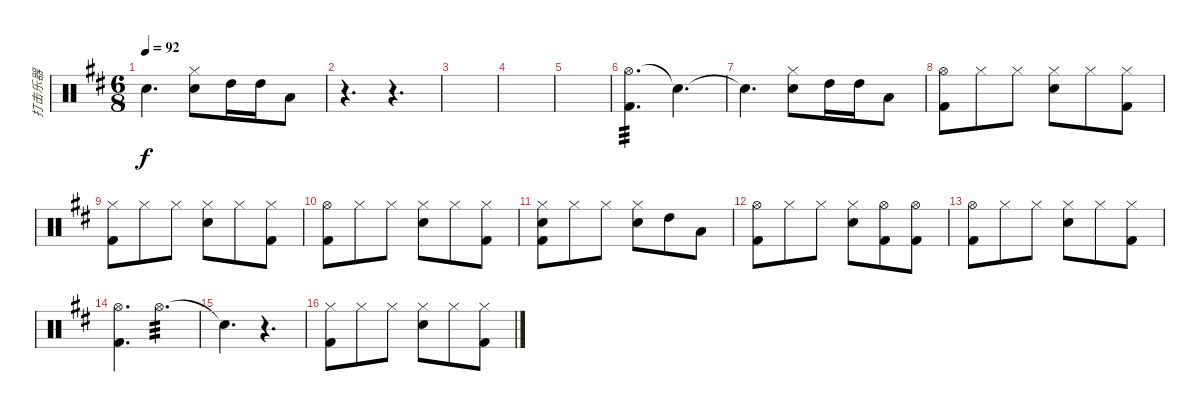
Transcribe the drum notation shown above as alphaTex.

\track ("打击乐器" "打击乐器") {instrument percussion}
\staff {score}
\articulation defaults
\ts (6 8)
\tempo 92
\clef neutral
\ks d "Snare (hit)"{t}.4{d dy f}
("Hi-Hat (closed)" "Snare (hit) 2").8 "High Tom (hit)".16 "High Tom (hit)".16 "Low Tom (hit)".8 |
r.4{d} r.4{d} |
|
|
|
("Hi-Hat (open)" "Kick (hit) 2").4{d tp 3} "Snare (hit)"{t}.4{d} |
"Snare (hit)"{t}.4{d} ("Hi-Hat (closed)" "Snare (hit) 2").8 "High Tom (hit)".16 "High Tom (hit)".16 "Low Tom (hit)".8 |
("Hi-Hat (open)" "Kick (hit) 2").8 "Hi-Hat (closed)".8 "Hi-Hat (closed)".8 ("Hi-Hat (closed)" "Snare (hit) 2").8 "Hi-Hat (closed)".8 ("Hi-Hat (closed)" "Kick (hit) 2").8 |
("Hi-Hat (closed)" "Kick (hit) 2").8 "Hi-Hat (closed)".8 "Hi-Hat (closed)".8 ("Hi-Hat (closed)" "Snare (hit) 2").8 "Hi-Hat (closed)".8 ("Hi-Hat (closed)" "Kick (hit) 2").8 |
("Hi-Hat (open)" "Kick (hit) 2").8 "Hi-Hat (closed)".8 "Hi-Hat (closed)".8 ("Hi-Hat (closed)" "Snare (hit) 2").8 "Hi-Hat (closed)".8 ("Hi-Hat (closed)" "Kick (hit) 2").8 |
("Hi-Hat (closed)" "Snare (hit) 2" "Kick (hit) 2").8 "Hi-Hat (closed)".8 "Hi-Hat (closed)".8 ("Hi-Hat (closed)" "Snare (hit) 2").8 "High Tom (hit)".8 "Low Tom (hit)".8 |
("Hi-Hat (open)" "Kick (hit) 2").8 "Hi-Hat (closed)".8 "Hi-Hat (closed)".8 ("Hi-Hat (closed)" "Snare (hit) 2").8 ("Hi-Hat (open)" "Kick (hit) 2").8 ("Hi-Hat (open)" "Kick (hit) 2").8 |
("Hi-Hat (open)" "Kick (hit) 2").8 "Hi-Hat (closed)".8 "Hi-Hat (closed)".8 ("Hi-Hat (closed)" "Snare (hit) 2").8 "Hi-Hat (closed)".8 ("Hi-Hat (closed)" "Kick (hit) 2").8 |
("Hi-Hat (open)" "Kick (hit) 2").4{d} "Hi-Hat (open)".4{d tp 3} |
"Snare (hit)"{t}.4{d} r.4{d} |
("Hi-Hat (closed)" "Kick (hit) 2").8 "Hi-Hat (closed)".8 "Hi-Hat (closed)".8 ("Hi-Hat (closed)" "Snare (hit) 2").8 "Hi-Hat (closed)".8 ("Hi-Hat (closed)" "Kick (hit) 2").8
